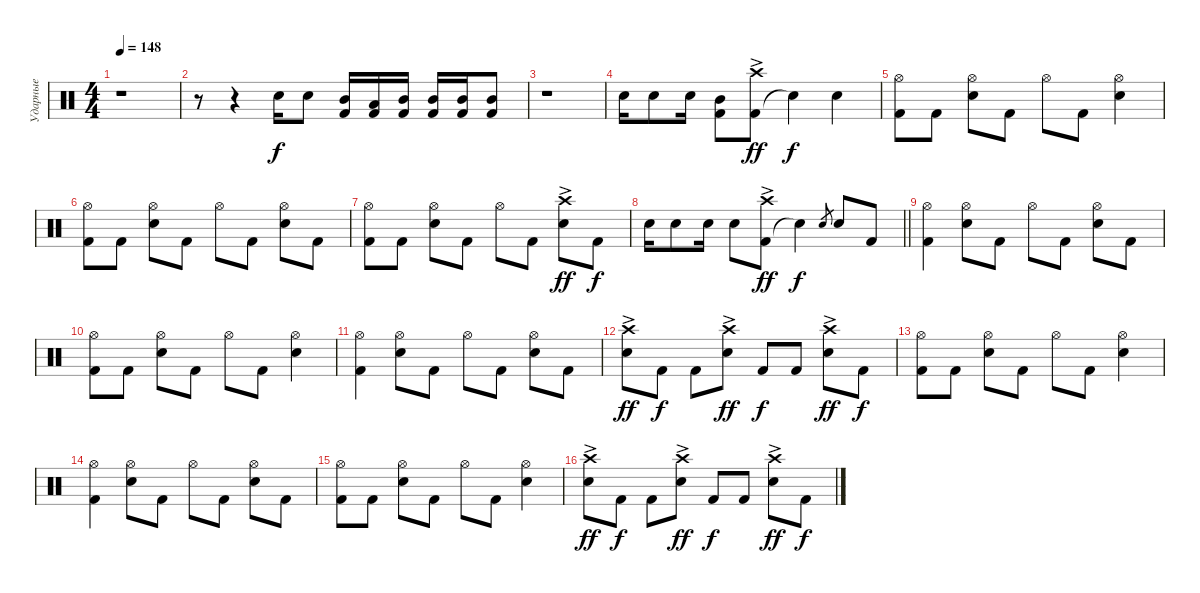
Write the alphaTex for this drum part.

\track ("Ударные" "Ударные") {instrument percussion}
\staff {score}
\articulation defaults
\ts (4 4)
\tempo 148
\clef neutral
\ks c
r.1{dy f} |
r.8 r.4 "Snare (hit) 2".16 "Electric Snare (hit)".8 ("Mid Tom (hit)" "Kick (hit) 2").16 ("Low Tom (hit)" "Kick (hit) 2").16 ("Mid Tom (hit)" "Kick (hit) 2").16 ("Mid Tom (hit)" "Kick (hit) 2").16 ("Mid Tom (hit)" "Kick (hit) 2").16 ("Mid Tom (hit)" "Kick (hit) 2").8 |
r.1 |
"Snare (hit) 2".16 "Electric Snare (hit)".8 "Electric Snare (hit)".16 ("Kick (hit) 2" "Mid Tom (hit)").8 ("Kick (hit) 2" "Crash high (hit)"{ac}).8{dy ff} "Snare (hit)"{t}.4{dy f} "Snare (hit) 2".4 |
("Kick (hit) 2" "Hi-Hat (open)").8 "Kick (hit) 2".8 ("Snare (hit) 2" "Hi-Hat (open)").8 "Kick (hit) 2".8 "Hi-Hat (open)".8 "Kick (hit) 2".8 ("Snare (hit) 2" "Hi-Hat (open)").4 |
("Kick (hit) 2" "Hi-Hat (open)").8 "Kick (hit) 2".8 ("Snare (hit) 2" "Hi-Hat (open)").8 "Kick (hit) 2".8 "Hi-Hat (open)".8 "Kick (hit) 2".8 ("Snare (hit) 2" "Hi-Hat (open)").8 "Kick (hit) 2".8 |
("Kick (hit) 2" "Hi-Hat (open)").8 "Kick (hit) 2".8 ("Snare (hit) 2" "Hi-Hat (open)").8 "Kick (hit) 2".8 "Hi-Hat (open)".8 "Kick (hit) 2".8 ("Snare (hit) 2" "Crash high (hit)"{ac}).8{dy ff} "Kick (hit) 2".8{dy f} |
\barLineRight lightlight "Snare (hit) 2".16 "Snare (hit) 2".8 "Snare (hit) 2".16 "Snare (hit) 2".8
("Kick (hit) 2" "Crash high (hit)"{ac}).8{dy ff} "Snare (hit)"{t}.4{dy f} "Snare (hit) 2".8{gr} "Snare (hit) 2".8 "Kick (hit) 2".8 |
("Kick (hit) 2" "Hi-Hat (open)").4 ("Snare (hit) 2" "Hi-Hat (open)").8 "Kick (hit) 2".8 "Hi-Hat (open)".8 "Kick (hit) 2".8 ("Snare (hit) 2" "Hi-Hat (open)").8 "Kick (hit) 2".8 |
("Kick (hit) 2" "Hi-Hat (open)").8 "Kick (hit) 2".8 ("Snare (hit) 2" "Hi-Hat (open)").8 "Kick (hit) 2".8 "Hi-Hat (open)".8 "Kick (hit) 2".8 ("Snare (hit) 2" "Hi-Hat (open)").4 |
("Kick (hit) 2" "Hi-Hat (open)").4 ("Snare (hit) 2" "Hi-Hat (open)").8 "Kick (hit) 2".8 "Hi-Hat (open)".8 "Kick (hit) 2".8 ("Snare (hit) 2" "Hi-Hat (open)").8 "Kick (hit) 2".8 |
("Snare (hit) 2" "Crash high (hit)"{ac}).8{dy ff} "Kick (hit) 2".8{dy f} "Kick (hit) 2".8 ("Snare (hit) 2" "Crash high (hit)"{ac}).8{dy ff} "Kick (hit) 2".8{dy f} "Kick (hit) 2".8 ("Snare (hit) 2" "Crash high (hit)"{ac}).8{dy ff} "Kick (hit) 2".8{dy f} |
("Kick (hit) 2" "Hi-Hat (open)").8 "Kick (hit) 2".8 ("Snare (hit) 2" "Hi-Hat (open)").8 "Kick (hit) 2".8 "Hi-Hat (open)".8 "Kick (hit) 2".8 ("Snare (hit) 2" "Hi-Hat (open)").4 |
("Kick (hit) 2" "Hi-Hat (open)").4 ("Snare (hit) 2" "Hi-Hat (open)").8 "Kick (hit) 2".8 "Hi-Hat (open)".8 "Kick (hit) 2".8 ("Snare (hit) 2" "Hi-Hat (open)").8 "Kick (hit) 2".8 |
("Kick (hit) 2" "Hi-Hat (open)").8 "Kick (hit) 2".8 ("Snare (hit) 2" "Hi-Hat (open)").8 "Kick (hit) 2".8 "Hi-Hat (open)".8 "Kick (hit) 2".8 ("Snare (hit) 2" "Hi-Hat (open)").4 |
("Snare (hit) 2" "Crash high (hit)"{ac}).8{dy ff} "Kick (hit) 2".8{dy f} "Kick (hit) 2".8 ("Snare (hit) 2" "Crash high (hit)"{ac}).8{dy ff} "Kick (hit) 2".8{dy f} "Kick (hit) 2".8 ("Snare (hit) 2" "Crash high (hit)"{ac}).8{dy ff} "Kick (hit) 2".8{dy f}
